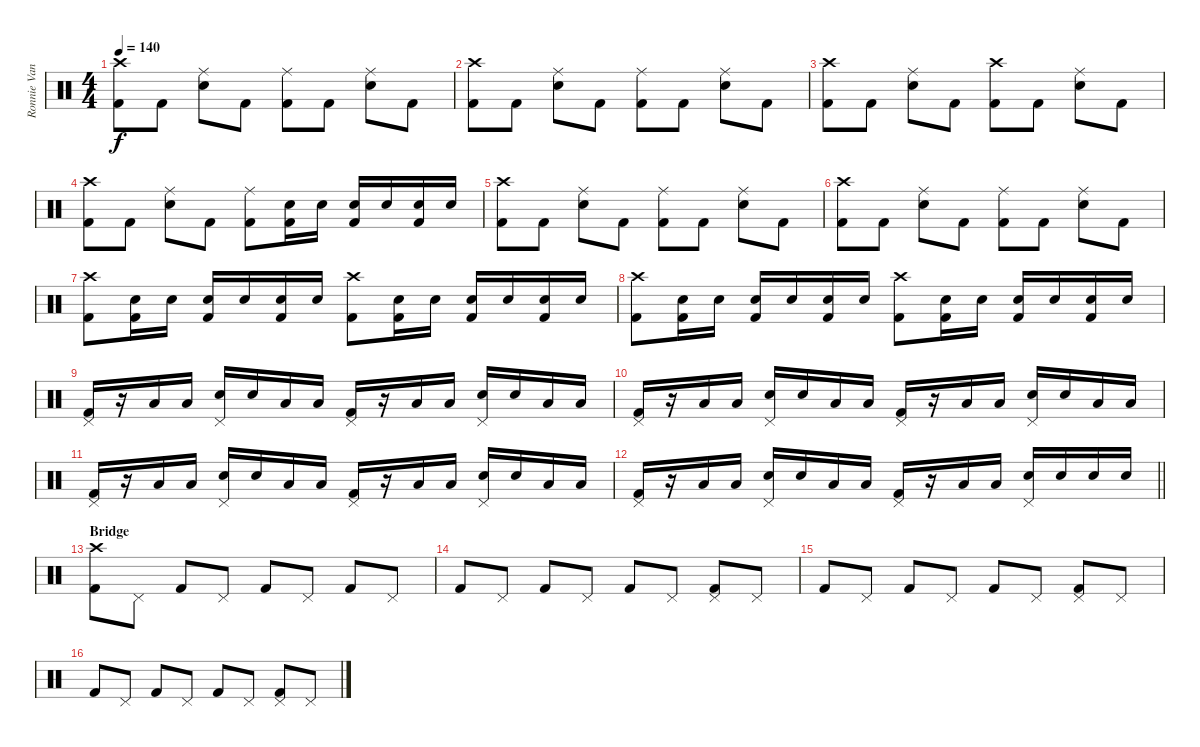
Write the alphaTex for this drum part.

\track ("Ronnie Vannucci Jr.'s drums" "Ronnie Van") {instrument percussion}
\staff {score}
\articulation defaults
\ts (4 4)
\tempo 140
\clef neutral
\ks c
("Crash high (hit)" "Kick (hit) 2").8{dy f} "Kick (hit) 2".8 ("Electric Snare (hit)" "Ride (middle)").8 "Kick (hit) 2".8 ("Ride (middle)" "Kick (hit) 2").8 "Kick (hit) 2".8 ("Electric Snare (hit)" "Ride (middle)").8 "Kick (hit) 2".8 |
("Crash high (hit)" "Kick (hit) 2").8 "Kick (hit) 2".8 ("Electric Snare (hit)" "Ride (middle)").8 "Kick (hit) 2".8 ("Ride (middle)" "Kick (hit) 2").8 "Kick (hit) 2".8 ("Electric Snare (hit)" "Ride (middle)").8 "Kick (hit) 2".8 |
("Crash high (hit)" "Kick (hit) 2").8 "Kick (hit) 2".8 ("Electric Snare (hit)" "Ride (middle)").8 "Kick (hit) 2".8 ("Crash high (hit)" "Kick (hit) 2").8 "Kick (hit) 2".8 ("Electric Snare (hit)" "Ride (middle)").8 "Kick (hit) 2".8 |
("Crash high (hit)" "Kick (hit) 2").8 "Kick (hit) 2".8 ("Electric Snare (hit)" "Ride (middle)").8 "Kick (hit) 2".8 ("Ride (middle)" "Kick (hit) 2").8 ("Kick (hit) 2" "Electric Snare (hit)").16 "Electric Snare (hit)".16 ("Kick (hit) 2" "Electric Snare (hit)").16 "Electric Snare (hit)".16 ("Kick (hit) 2" "Electric Snare (hit)").16 "Electric Snare (hit)".16 |
("Crash high (hit)" "Kick (hit) 2").8 "Kick (hit) 2".8 ("Electric Snare (hit)" "Ride (middle)").8 "Kick (hit) 2".8 ("Ride (middle)" "Kick (hit) 2").8 "Kick (hit) 2".8 ("Electric Snare (hit)" "Ride (middle)").8 "Kick (hit) 2".8 |
("Crash high (hit)" "Kick (hit) 2").8 "Kick (hit) 2".8 ("Electric Snare (hit)" "Ride (middle)").8 "Kick (hit) 2".8 ("Ride (middle)" "Kick (hit) 2").8 "Kick (hit) 2".8 ("Electric Snare (hit)" "Ride (middle)").8 "Kick (hit) 2".8 |
("Crash high (hit)" "Kick (hit) 2").8 ("Kick (hit) 2" "Electric Snare (hit)").16 "Electric Snare (hit)".16 ("Kick (hit) 2" "Electric Snare (hit)").16 "Electric Snare (hit)".16 ("Kick (hit) 2" "Electric Snare (hit)").16 "Electric Snare (hit)".16 ("Crash high (hit)" "Kick (hit) 2").8 ("Kick (hit) 2" "Electric Snare (hit)").16 "Electric Snare (hit)".16 ("Kick (hit) 2" "Electric Snare (hit)").16 "Electric Snare (hit)".16 ("Kick (hit) 2" "Electric Snare (hit)").16 "Electric Snare (hit)".16 |
("Crash high (hit)" "Kick (hit) 2").8 ("Kick (hit) 2" "Electric Snare (hit)").16 "Electric Snare (hit)".16 ("Kick (hit) 2" "Electric Snare (hit)").16 "Electric Snare (hit)".16 ("Kick (hit) 2" "Electric Snare (hit)").16 "Electric Snare (hit)".16 ("Crash high (hit)" "Kick (hit) 2").8 ("Kick (hit) 2" "Electric Snare (hit)").16 "Electric Snare (hit)".16 ("Kick (hit) 2" "Electric Snare (hit)").16 "Electric Snare (hit)".16 ("Kick (hit) 2" "Electric Snare (hit)").16 "Electric Snare (hit)".16 |
("Pedal Hi-Hat (hit)" "Kick (hit) 2").16 r.16 "Low Tom (hit)".16 "Low Tom (hit)".16 ("Pedal Hi-Hat (hit)" "Electric Snare (hit)").16 "Electric Snare (hit)".16 "Low Floor Tom (hit)".16 "Low Floor Tom (hit)".16 ("Pedal Hi-Hat (hit)" "Kick (hit) 2").16 r.16 "Low Tom (hit)".16 "Low Tom (hit)".16 ("Pedal Hi-Hat (hit)" "Electric Snare (hit)").16 "Electric Snare (hit)".16 "Low Floor Tom (hit)".16 "Low Floor Tom (hit)".16 |
("Pedal Hi-Hat (hit)" "Kick (hit) 2").16 r.16 "Low Tom (hit)".16 "Low Tom (hit)".16 ("Pedal Hi-Hat (hit)" "Electric Snare (hit)").16 "Electric Snare (hit)".16 "Low Floor Tom (hit)".16 "Low Floor Tom (hit)".16 ("Pedal Hi-Hat (hit)" "Kick (hit) 2").16 r.16 "Low Tom (hit)".16 "Low Tom (hit)".16 ("Pedal Hi-Hat (hit)" "Electric Snare (hit)").16 "Electric Snare (hit)".16 "Low Floor Tom (hit)".16 "Low Floor Tom (hit)".16 |
("Pedal Hi-Hat (hit)" "Kick (hit) 2").16 r.16 "Low Tom (hit)".16 "Low Tom (hit)".16 ("Pedal Hi-Hat (hit)" "Electric Snare (hit)").16 "Electric Snare (hit)".16 "Low Floor Tom (hit)".16 "Low Floor Tom (hit)".16 ("Pedal Hi-Hat (hit)" "Kick (hit) 2").16 r.16 "Low Tom (hit)".16 "Low Tom (hit)".16 ("Pedal Hi-Hat (hit)" "Electric Snare (hit)").16 "Electric Snare (hit)".16 "Low Floor Tom (hit)".16 "Low Floor Tom (hit)".16 |
\barLineRight lightlight
("Pedal Hi-Hat (hit)" "Kick (hit) 2").16 r.16 "Low Tom (hit)".16 "Low Tom (hit)".16 ("Pedal Hi-Hat (hit)" "Electric Snare (hit)").16 "Electric Snare (hit)".16 "Low Floor Tom (hit)".16 "Low Floor Tom (hit)".16 ("Pedal Hi-Hat (hit)" "Kick (hit) 2").16 r.16 "Low Tom (hit)".16 "Low Tom (hit)".16 ("Pedal Hi-Hat (hit)" "Electric Snare (hit)").16 "Electric Snare (hit)".16 "Electric Snare (hit)".16 "Electric Snare (hit)".16 |
\section ("" "Bridge")
("Kick (hit) 2" "Crash high (hit)").8 "Pedal Hi-Hat (hit)".8 "Kick (hit) 2".8 "Pedal Hi-Hat (hit)".8 "Kick (hit) 2".8 "Pedal Hi-Hat (hit)".8 "Kick (hit) 2".8 "Pedal Hi-Hat (hit)".8 |
"Kick (hit) 2".8 "Pedal Hi-Hat (hit)".8 "Kick (hit) 2".8 "Pedal Hi-Hat (hit)".8 "Kick (hit) 2".8 "Pedal Hi-Hat (hit)".8 ("Pedal Hi-Hat (hit)" "Kick (hit) 2").8 "Pedal Hi-Hat (hit)".8 |
"Kick (hit) 2".8 "Pedal Hi-Hat (hit)".8 "Kick (hit) 2".8 "Pedal Hi-Hat (hit)".8 "Kick (hit) 2".8 "Pedal Hi-Hat (hit)".8 ("Pedal Hi-Hat (hit)" "Kick (hit) 2").8 "Pedal Hi-Hat (hit)".8 |
"Kick (hit) 2".8 "Pedal Hi-Hat (hit)".8 "Kick (hit) 2".8 "Pedal Hi-Hat (hit)".8 "Kick (hit) 2".8 "Pedal Hi-Hat (hit)".8 ("Pedal Hi-Hat (hit)" "Kick (hit) 2").8 "Pedal Hi-Hat (hit)".8
